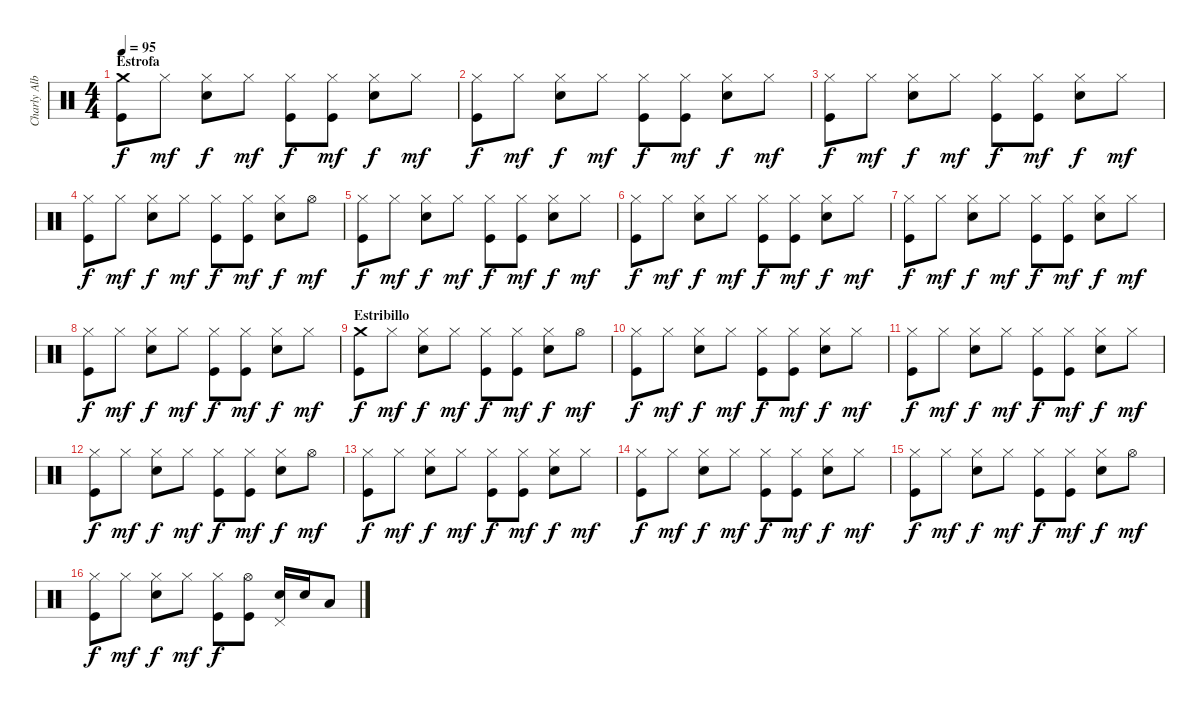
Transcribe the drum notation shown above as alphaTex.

\track ("Charly Alberti BATERIA" "Charly Alb") {instrument percussion}
\staff {score}
\articulation defaults
\ts (4 4)
\section ("" "Estrofa")
\tempo 95
\clef neutral
\ks c
("Kick (hit)" "Crash medium (hit)").8{dy f} "Hi-Hat (closed)".8{dy mf} ("Electric Snare (hit)" "Hi-Hat (closed)").8{dy f} "Hi-Hat (closed)".8{dy mf} ("Kick (hit)" "Hi-Hat (closed)").8{dy f} ("Kick (hit)" "Hi-Hat (closed)").8{dy mf} ("Electric Snare (hit)" "Hi-Hat (closed)").8{dy f} "Hi-Hat (closed)".8{dy mf} |
("Kick (hit)" "Hi-Hat (closed)").8{dy f} "Hi-Hat (closed)".8{dy mf} ("Electric Snare (hit)" "Hi-Hat (closed)").8{dy f} "Hi-Hat (closed)".8{dy mf} ("Kick (hit)" "Hi-Hat (closed)").8{dy f} ("Kick (hit)" "Hi-Hat (closed)").8{dy mf} ("Electric Snare (hit)" "Hi-Hat (closed)").8{dy f} "Hi-Hat (closed)".8{dy mf} |
("Kick (hit)" "Hi-Hat (closed)").8{dy f} "Hi-Hat (closed)".8{dy mf} ("Electric Snare (hit)" "Hi-Hat (closed)").8{dy f} "Hi-Hat (closed)".8{dy mf} ("Kick (hit)" "Hi-Hat (closed)").8{dy f} ("Kick (hit)" "Hi-Hat (closed)").8{dy mf} ("Electric Snare (hit)" "Hi-Hat (closed)").8{dy f} "Hi-Hat (closed)".8{dy mf} |
("Kick (hit)" "Hi-Hat (closed)").8{dy f} "Hi-Hat (closed)".8{dy mf} ("Electric Snare (hit)" "Hi-Hat (closed)").8{dy f} "Hi-Hat (closed)".8{dy mf} ("Kick (hit)" "Hi-Hat (closed)").8{dy f} ("Kick (hit)" "Hi-Hat (closed)").8{dy mf} ("Electric Snare (hit)" "Hi-Hat (closed)").8{dy f} "Hi-Hat (open)".8{dy mf} |
("Kick (hit)" "Hi-Hat (closed)").8{dy f} "Hi-Hat (closed)".8{dy mf} ("Electric Snare (hit)" "Hi-Hat (closed)").8{dy f} "Hi-Hat (closed)".8{dy mf} ("Kick (hit)" "Hi-Hat (closed)").8{dy f} ("Kick (hit)" "Hi-Hat (closed)").8{dy mf} ("Electric Snare (hit)" "Hi-Hat (closed)").8{dy f} "Hi-Hat (closed)".8{dy mf} |
("Kick (hit)" "Hi-Hat (closed)").8{dy f} "Hi-Hat (closed)".8{dy mf} ("Electric Snare (hit)" "Hi-Hat (closed)").8{dy f} "Hi-Hat (closed)".8{dy mf} ("Kick (hit)" "Hi-Hat (closed)").8{dy f} ("Kick (hit)" "Hi-Hat (closed)").8{dy mf} ("Electric Snare (hit)" "Hi-Hat (closed)").8{dy f} "Hi-Hat (closed)".8{dy mf} |
("Kick (hit)" "Hi-Hat (closed)").8{dy f} "Hi-Hat (closed)".8{dy mf} ("Electric Snare (hit)" "Hi-Hat (closed)").8{dy f} "Hi-Hat (closed)".8{dy mf} ("Kick (hit)" "Hi-Hat (closed)").8{dy f} ("Kick (hit)" "Hi-Hat (closed)").8{dy mf} ("Electric Snare (hit)" "Hi-Hat (closed)").8{dy f} "Hi-Hat (closed)".8{dy mf} |
("Kick (hit)" "Hi-Hat (closed)").8{dy f} "Hi-Hat (closed)".8{dy mf} ("Electric Snare (hit)" "Hi-Hat (closed)").8{dy f} "Hi-Hat (closed)".8{dy mf} ("Kick (hit)" "Hi-Hat (closed)").8{dy f} ("Kick (hit)" "Hi-Hat (closed)").8{dy mf} ("Electric Snare (hit)" "Hi-Hat (closed)").8{dy f} "Hi-Hat (closed)".8{dy mf} |
\section ("" "Estribillo")
("Kick (hit)" "Crash medium (hit)").8{dy f} "Hi-Hat (closed)".8{dy mf} ("Electric Snare (hit)" "Hi-Hat (closed)").8{dy f} "Hi-Hat (closed)".8{dy mf} ("Kick (hit)" "Hi-Hat (closed)").8{dy f} ("Kick (hit)" "Hi-Hat (closed)").8{dy mf} ("Electric Snare (hit)" "Hi-Hat (closed)").8{dy f} "Hi-Hat (open)".8{dy mf} |
("Kick (hit)" "Hi-Hat (closed)").8{dy f} "Hi-Hat (closed)".8{dy mf} ("Electric Snare (hit)" "Hi-Hat (closed)").8{dy f} "Hi-Hat (closed)".8{dy mf} ("Kick (hit)" "Hi-Hat (closed)").8{dy f} ("Kick (hit)" "Hi-Hat (closed)").8{dy mf} ("Electric Snare (hit)" "Hi-Hat (closed)").8{dy f} "Hi-Hat (closed)".8{dy mf} |
("Kick (hit)" "Hi-Hat (closed)").8{dy f} "Hi-Hat (closed)".8{dy mf} ("Electric Snare (hit)" "Hi-Hat (closed)").8{dy f} "Hi-Hat (closed)".8{dy mf} ("Kick (hit)" "Hi-Hat (closed)").8{dy f} ("Kick (hit)" "Hi-Hat (closed)").8{dy mf} ("Electric Snare (hit)" "Hi-Hat (closed)").8{dy f} "Hi-Hat (closed)".8{dy mf} |
("Kick (hit)" "Hi-Hat (closed)").8{dy f} "Hi-Hat (closed)".8{dy mf} ("Electric Snare (hit)" "Hi-Hat (closed)").8{dy f} "Hi-Hat (closed)".8{dy mf} ("Kick (hit)" "Hi-Hat (closed)").8{dy f} ("Kick (hit)" "Hi-Hat (closed)").8{dy mf} ("Electric Snare (hit)" "Hi-Hat (closed)").8{dy f} "Hi-Hat (open)".8{dy mf} |
("Kick (hit)" "Hi-Hat (closed)").8{dy f} "Hi-Hat (closed)".8{dy mf} ("Electric Snare (hit)" "Hi-Hat (closed)").8{dy f} "Hi-Hat (closed)".8{dy mf} ("Kick (hit)" "Hi-Hat (closed)").8{dy f} ("Kick (hit)" "Hi-Hat (closed)").8{dy mf} ("Electric Snare (hit)" "Hi-Hat (closed)").8{dy f} "Hi-Hat (closed)".8{dy mf} |
("Kick (hit)" "Hi-Hat (closed)").8{dy f} "Hi-Hat (closed)".8{dy mf} ("Electric Snare (hit)" "Hi-Hat (closed)").8{dy f} "Hi-Hat (closed)".8{dy mf} ("Kick (hit)" "Hi-Hat (closed)").8{dy f} ("Kick (hit)" "Hi-Hat (closed)").8{dy mf} ("Electric Snare (hit)" "Hi-Hat (closed)").8{dy f} "Hi-Hat (closed)".8{dy mf} |
("Kick (hit)" "Hi-Hat (closed)").8{dy f} "Hi-Hat (closed)".8{dy mf} ("Electric Snare (hit)" "Hi-Hat (closed)").8{dy f} "Hi-Hat (closed)".8{dy mf} ("Kick (hit)" "Hi-Hat (closed)").8{dy f} ("Kick (hit)" "Hi-Hat (closed)").8{dy mf} ("Electric Snare (hit)" "Hi-Hat (closed)").8{dy f} "Hi-Hat (open)".8{dy mf} |
("Kick (hit)" "Hi-Hat (closed)").8{dy f} "Hi-Hat (closed)".8{dy mf} ("Electric Snare (hit)" "Hi-Hat (closed)").8{dy f} "Hi-Hat (closed)".8{dy mf} ("Kick (hit)" "Hi-Hat (closed)").8{dy f} ("Kick (hit)" "Hi-Hat (open)").8 ("Electric Snare (hit)" "Pedal Hi-Hat (hit)").16 "Electric Snare (hit)".16 "Low Tom (hit)".8
